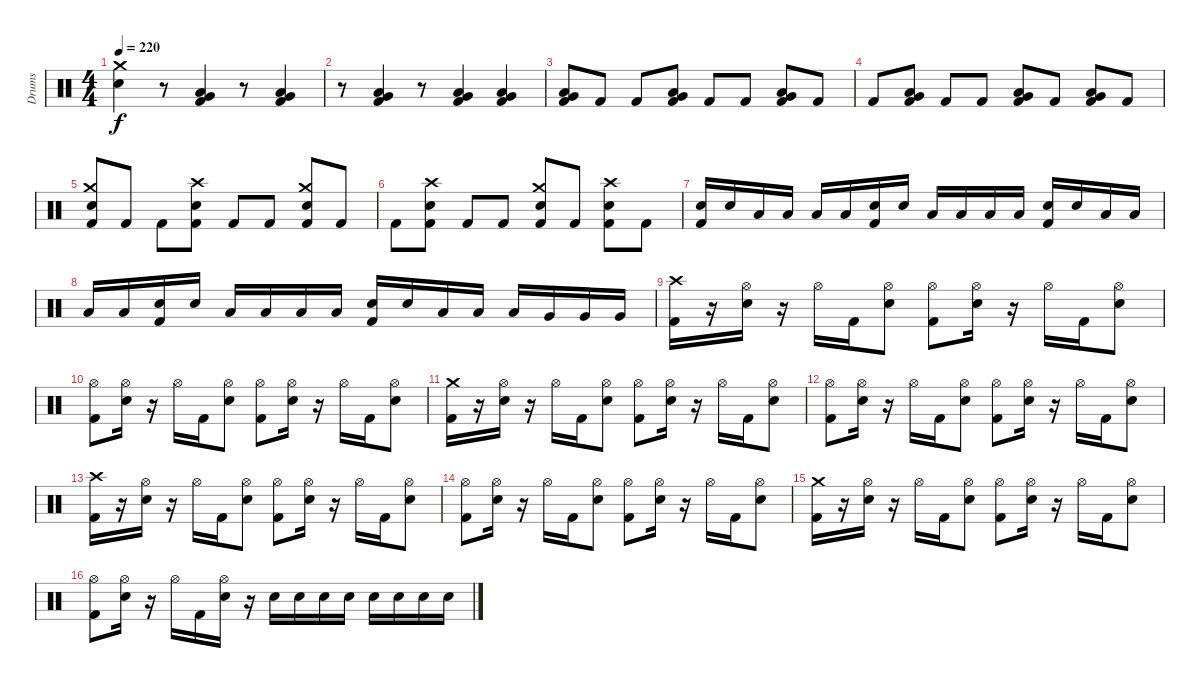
\track ("Drums" "Drums") {instrument percussion}
\staff {score}
\articulation defaults
\ts (4 4)
\tempo 220
\clef neutral
\ks c
("Electric Snare (hit)" "Crash medium (hit)").4{dy f} r.8 ("Low Tom (hit)" "Very Low Tom (hit)" "Kick (hit) 2").4 r.8 ("Low Tom (hit)" "Very Low Tom (hit)" "Kick (hit) 2").4 |
r.8 ("Low Tom (hit)" "Very Low Tom (hit)" "Kick (hit) 2").4 r.8 ("Low Tom (hit)" "Very Low Tom (hit)" "Kick (hit) 2").4 ("Low Tom (hit)" "Very Low Tom (hit)" "Kick (hit) 2").4 |
("Low Tom (hit)" "Very Low Tom (hit)" "Kick (hit) 2").8 "Kick (hit) 2".8 "Kick (hit) 2".8 ("Low Tom (hit)" "Very Low Tom (hit)" "Kick (hit) 2").8 "Kick (hit) 2".8 "Kick (hit) 2".8 ("Low Tom (hit)" "Very Low Tom (hit)" "Kick (hit) 2").8 "Kick (hit) 2".8 |
"Kick (hit) 2".8 ("Low Tom (hit)" "Very Low Tom (hit)" "Kick (hit) 2").8 "Kick (hit) 2".8 "Kick (hit) 2".8 ("Low Tom (hit)" "Very Low Tom (hit)" "Kick (hit) 2").8 "Kick (hit) 2".8 ("Low Tom (hit)" "Very Low Tom (hit)" "Kick (hit) 2").8 "Kick (hit) 2".8 |
("Crash medium (hit)" "Electric Snare (hit)" "Kick (hit) 2").8 "Kick (hit) 2".8 "Kick (hit) 2".8 ("Crash high (hit)" "Electric Snare (hit)" "Kick (hit) 2").8 "Kick (hit) 2".8 "Kick (hit) 2".8 ("Crash medium (hit)" "Electric Snare (hit)" "Kick (hit) 2").8 "Kick (hit) 2".8 |
"Kick (hit) 2".8 ("Crash high (hit)" "Electric Snare (hit)" "Kick (hit) 2").8 "Kick (hit) 2".8 "Kick (hit) 2".8 ("Crash medium (hit)" "Electric Snare (hit)" "Kick (hit) 2").8 "Kick (hit) 2".8 ("Crash high (hit)" "Electric Snare (hit)" "Kick (hit) 2").8 "Kick (hit) 2".8 |
("Electric Snare (hit)" "Kick (hit) 2").16 "Electric Snare (hit)".16 "Low Tom (hit)".16 "Low Tom (hit)".16 "Low Tom (hit)".16 "Low Tom (hit)".16 ("Electric Snare (hit)" "Kick (hit) 2").16 "Electric Snare (hit)".16 "Low Tom (hit)".16 "Low Tom (hit)".16 "Low Tom (hit)".16 "Low Tom (hit)".16 ("Electric Snare (hit)" "Kick (hit) 2").16 "Electric Snare (hit)".16 "Low Tom (hit)".16 "Low Tom (hit)".16 |
"Low Tom (hit)".16 "Low Tom (hit)".16 ("Electric Snare (hit)" "Kick (hit) 2").16 "Electric Snare (hit)".16 "Low Tom (hit)".16 "Low Tom (hit)".16 "Low Tom (hit)".16 "Low Tom (hit)".16 ("Electric Snare (hit)" "Kick (hit) 2").16 "Electric Snare (hit)".16 "Low Tom (hit)".16 "Low Tom (hit)".16 "Low Tom (hit)".16 "Very Low Tom (hit)".16 "Very Low Tom (hit)".16 "Very Low Tom (hit)".16 |
("Crash high (hit)" "Kick (hit) 2").16 r.16 ("Electric Snare (hit)" "Hi-Hat (open)").16 r.16 "Hi-Hat (open)".16 "Kick (hit) 2".16 ("Electric Snare (hit)" "Hi-Hat (open)").8 ("Kick (hit) 2" "Hi-Hat (open)").8 ("Electric Snare (hit)" "Hi-Hat (open)").16 r.16 "Hi-Hat (open)".16 "Kick (hit) 2".16 ("Electric Snare (hit)" "Hi-Hat (open)").8 |
("Kick (hit) 2" "Hi-Hat (open)").8 ("Electric Snare (hit)" "Hi-Hat (open)").16 r.16 "Hi-Hat (open)".16 "Kick (hit) 2".16 ("Electric Snare (hit)" "Hi-Hat (open)").8 ("Kick (hit) 2" "Hi-Hat (open)").8 ("Electric Snare (hit)" "Hi-Hat (open)").16 r.16 "Hi-Hat (open)".16 "Kick (hit) 2".16 ("Electric Snare (hit)" "Hi-Hat (open)").8 |
("Kick (hit) 2" "Crash medium (hit)").16 r.16 ("Electric Snare (hit)" "Hi-Hat (open)").16 r.16 "Hi-Hat (open)".16 "Kick (hit) 2".16 ("Electric Snare (hit)" "Hi-Hat (open)").8 ("Kick (hit) 2" "Hi-Hat (open)").8 ("Electric Snare (hit)" "Hi-Hat (open)").16 r.16 "Hi-Hat (open)".16 "Kick (hit) 2".16 ("Electric Snare (hit)" "Hi-Hat (open)").8 |
("Kick (hit) 2" "Hi-Hat (open)").8 ("Electric Snare (hit)" "Hi-Hat (open)").16 r.16 "Hi-Hat (open)".16 "Kick (hit) 2".16 ("Electric Snare (hit)" "Hi-Hat (open)").8 ("Kick (hit) 2" "Hi-Hat (open)").8 ("Electric Snare (hit)" "Hi-Hat (open)").16 r.16 "Hi-Hat (open)".16 "Kick (hit) 2".16 ("Electric Snare (hit)" "Hi-Hat (open)").8 |
("Crash high (hit)" "Kick (hit) 2").16 r.16 ("Electric Snare (hit)" "Hi-Hat (open)").16 r.16 "Hi-Hat (open)".16 "Kick (hit) 2".16 ("Electric Snare (hit)" "Hi-Hat (open)").8 ("Kick (hit) 2" "Hi-Hat (open)").8 ("Electric Snare (hit)" "Hi-Hat (open)").16 r.16 "Hi-Hat (open)".16 "Kick (hit) 2".16 ("Electric Snare (hit)" "Hi-Hat (open)").8 |
("Kick (hit) 2" "Hi-Hat (open)").8 ("Electric Snare (hit)" "Hi-Hat (open)").16 r.16 "Hi-Hat (open)".16 "Kick (hit) 2".16 ("Electric Snare (hit)" "Hi-Hat (open)").8 ("Kick (hit) 2" "Hi-Hat (open)").8 ("Electric Snare (hit)" "Hi-Hat (open)").16 r.16 "Hi-Hat (open)".16 "Kick (hit) 2".16 ("Electric Snare (hit)" "Hi-Hat (open)").8 |
("Kick (hit) 2" "Crash medium (hit)").16 r.16 ("Electric Snare (hit)" "Hi-Hat (open)").16 r.16 "Hi-Hat (open)".16 "Kick (hit) 2".16 ("Electric Snare (hit)" "Hi-Hat (open)").8 ("Kick (hit) 2" "Hi-Hat (open)").8 ("Electric Snare (hit)" "Hi-Hat (open)").16 r.16 "Hi-Hat (open)".16 "Kick (hit) 2".16 ("Electric Snare (hit)" "Hi-Hat (open)").8 |
("Kick (hit) 2" "Hi-Hat (open)").8 ("Electric Snare (hit)" "Hi-Hat (open)").16 r.16 "Hi-Hat (open)".16 "Kick (hit) 2".16 ("Electric Snare (hit)" "Hi-Hat (open)").16 r.16 "Electric Snare (hit)".16 "Electric Snare (hit)".16 "Electric Snare (hit)".16 "Electric Snare (hit)".16 "Electric Snare (hit)".16 "Electric Snare (hit)".16 "Electric Snare (hit)".16 "Electric Snare (hit)".16
